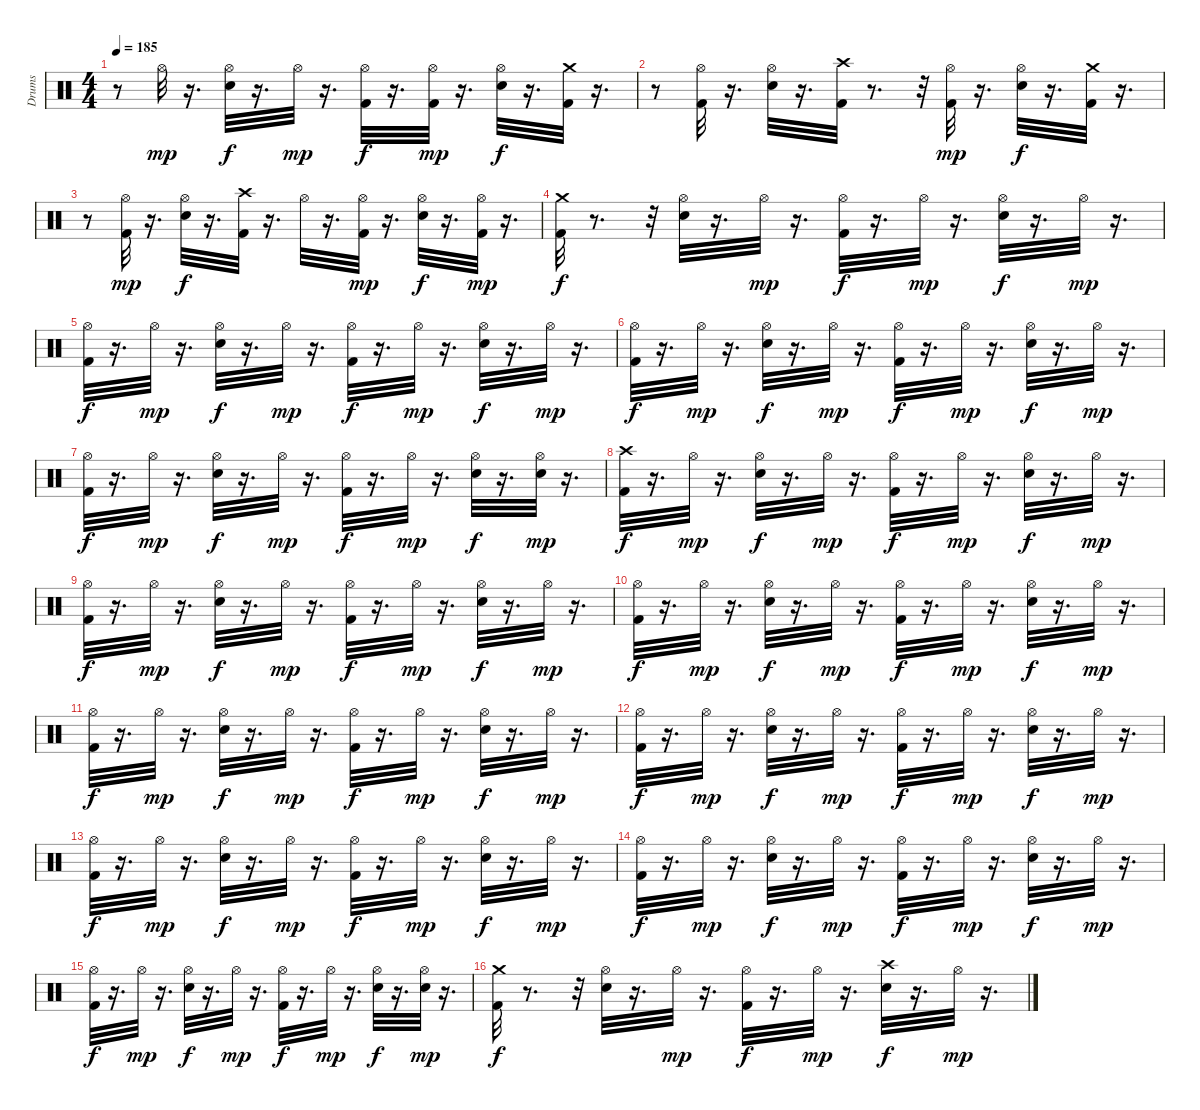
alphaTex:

\track ("Drums" "Drums") {instrument percussion}
\staff {score}
\articulation defaults
\ts (4 4)
\tempo 185
\clef neutral
\ks c
r.8{dy f} "Hi-Hat (open)".32{dy mp} r.16{d} ("Hi-Hat (open)" "Electric Snare (hit)").32{dy f} r.16{d} "Hi-Hat (open)".32{dy mp} r.16{d} ("Hi-Hat (open)" "Kick (hit) 2").32{dy f} r.16{d} ("Hi-Hat (open)" "Kick (hit) 2").32{dy mp} r.16{d} ("Hi-Hat (open)" "Electric Snare (hit)").32{dy f} r.16{d} ("Crash medium (hit)" "Kick (hit) 2").32 r.16{d} |
r.8 ("Hi-Hat (open)" "Kick (hit) 2").32 r.16{d} ("Hi-Hat (open)" "Electric Snare (hit)").32 r.16{d} ("Crash high (hit)" "Kick (hit) 2").32 r.8{d} r.32 ("Hi-Hat (open)" "Kick (hit) 2").32{dy mp} r.16{d} ("Hi-Hat (open)" "Electric Snare (hit)").32{dy f} r.16{d} ("Crash medium (hit)" "Kick (hit) 2").32 r.16{d} |
r.8 ("Hi-Hat (open)" "Kick (hit) 2").32{dy mp} r.16{d} ("Hi-Hat (open)" "Electric Snare (hit)").32{dy f} r.16{d} ("Crash high (hit)" "Kick (hit) 2").32 r.16{d} "Hi-Hat (open)".32 r.16{d} ("Hi-Hat (open)" "Kick (hit) 2").32{dy mp} r.16{d} ("Hi-Hat (open)" "Electric Snare (hit)").32{dy f} r.16{d} ("Hi-Hat (open)" "Kick (hit) 2").32{dy mp} r.16{d} |
("Crash medium (hit)" "Kick (hit) 2").32{dy f} r.8{d} r.32 ("Hi-Hat (open)" "Electric Snare (hit)").32 r.16{d} "Hi-Hat (open)".32{dy mp} r.16{d} ("Hi-Hat (open)" "Kick (hit) 2").32{dy f} r.16{d} "Hi-Hat (open)".32{dy mp} r.16{d} ("Hi-Hat (open)" "Electric Snare (hit)").32{dy f} r.16{d} "Hi-Hat (open)".32{dy mp} r.16{d} |
("Hi-Hat (open)" "Kick (hit) 2").32{dy f} r.16{d} "Hi-Hat (open)".32{dy mp} r.16{d} ("Hi-Hat (open)" "Electric Snare (hit)").32{dy f} r.16{d} "Hi-Hat (open)".32{dy mp} r.16{d} ("Hi-Hat (open)" "Kick (hit) 2").32{dy f} r.16{d} "Hi-Hat (open)".32{dy mp} r.16{d} ("Hi-Hat (open)" "Electric Snare (hit)").32{dy f} r.16{d} "Hi-Hat (open)".32{dy mp} r.16{d} |
("Hi-Hat (open)" "Kick (hit) 2").32{dy f} r.16{d} "Hi-Hat (open)".32{dy mp} r.16{d} ("Hi-Hat (open)" "Electric Snare (hit)").32{dy f} r.16{d} "Hi-Hat (open)".32{dy mp} r.16{d} ("Hi-Hat (open)" "Kick (hit) 2").32{dy f} r.16{d} "Hi-Hat (open)".32{dy mp} r.16{d} ("Hi-Hat (open)" "Electric Snare (hit)").32{dy f} r.16{d} "Hi-Hat (open)".32{dy mp} r.16{d} |
("Kick (hit) 2" "Hi-Hat (open)").32{dy f} r.16{d} "Hi-Hat (open)".32{dy mp} r.16{d} ("Electric Snare (hit)" "Hi-Hat (open)").32{dy f} r.16{d} "Hi-Hat (open)".32{dy mp} r.16{d} ("Kick (hit) 2" "Hi-Hat (open)").32{dy f} r.16{d} "Hi-Hat (open)".32{dy mp} r.16{d} ("Hi-Hat (open)" "Electric Snare (hit)").32{dy f} r.16{d} ("Electric Snare (hit)" "Hi-Hat (open)").32{dy mp} r.16{d} |
("Crash high (hit)" "Kick (hit) 2").32{dy f} r.16{d} "Hi-Hat (open)".32{dy mp} r.16{d} ("Hi-Hat (open)" "Electric Snare (hit)").32{dy f} r.16{d} "Hi-Hat (open)".32{dy mp} r.16{d} ("Hi-Hat (open)" "Kick (hit) 2").32{dy f} r.16{d} "Hi-Hat (open)".32{dy mp} r.16{d} ("Hi-Hat (open)" "Electric Snare (hit)").32{dy f} r.16{d} "Hi-Hat (open)".32{dy mp} r.16{d} |
("Hi-Hat (open)" "Kick (hit) 2").32{dy f} r.16{d} "Hi-Hat (open)".32{dy mp} r.16{d} ("Hi-Hat (open)" "Electric Snare (hit)").32{dy f} r.16{d} "Hi-Hat (open)".32{dy mp} r.16{d} ("Hi-Hat (open)" "Kick (hit) 2").32{dy f} r.16{d} "Hi-Hat (open)".32{dy mp} r.16{d} ("Hi-Hat (open)" "Electric Snare (hit)").32{dy f} r.16{d} "Hi-Hat (open)".32{dy mp} r.16{d} |
("Hi-Hat (open)" "Kick (hit) 2").32{dy f} r.16{d} "Hi-Hat (open)".32{dy mp} r.16{d} ("Hi-Hat (open)" "Electric Snare (hit)").32{dy f} r.16{d} "Hi-Hat (open)".32{dy mp} r.16{d} ("Hi-Hat (open)" "Kick (hit) 2").32{dy f} r.16{d} "Hi-Hat (open)".32{dy mp} r.16{d} ("Hi-Hat (open)" "Electric Snare (hit)").32{dy f} r.16{d} "Hi-Hat (open)".32{dy mp} r.16{d} |
("Hi-Hat (open)" "Kick (hit) 2").32{dy f} r.16{d} "Hi-Hat (open)".32{dy mp} r.16{d} ("Hi-Hat (open)" "Electric Snare (hit)").32{dy f} r.16{d} "Hi-Hat (open)".32{dy mp} r.16{d} ("Hi-Hat (open)" "Kick (hit) 2").32{dy f} r.16{d} "Hi-Hat (open)".32{dy mp} r.16{d} ("Hi-Hat (open)" "Electric Snare (hit)").32{dy f} r.16{d} "Hi-Hat (open)".32{dy mp} r.16{d} |
("Hi-Hat (open)" "Kick (hit) 2").32{dy f} r.16{d} "Hi-Hat (open)".32{dy mp} r.16{d} ("Hi-Hat (open)" "Electric Snare (hit)").32{dy f} r.16{d} "Hi-Hat (open)".32{dy mp} r.16{d} ("Hi-Hat (open)" "Kick (hit) 2").32{dy f} r.16{d} "Hi-Hat (open)".32{dy mp} r.16{d} ("Hi-Hat (open)" "Electric Snare (hit)").32{dy f} r.16{d} "Hi-Hat (open)".32{dy mp} r.16{d} |
("Hi-Hat (open)" "Kick (hit) 2").32{dy f} r.16{d} "Hi-Hat (open)".32{dy mp} r.16{d} ("Hi-Hat (open)" "Electric Snare (hit)").32{dy f} r.16{d} "Hi-Hat (open)".32{dy mp} r.16{d} ("Hi-Hat (open)" "Kick (hit) 2").32{dy f} r.16{d} "Hi-Hat (open)".32{dy mp} r.16{d} ("Hi-Hat (open)" "Electric Snare (hit)").32{dy f} r.16{d} "Hi-Hat (open)".32{dy mp} r.16{d} |
("Hi-Hat (open)" "Kick (hit) 2").32{dy f} r.16{d} "Hi-Hat (open)".32{dy mp} r.16{d} ("Hi-Hat (open)" "Electric Snare (hit)").32{dy f} r.16{d} "Hi-Hat (open)".32{dy mp} r.16{d} ("Hi-Hat (open)" "Kick (hit) 2").32{dy f} r.16{d} "Hi-Hat (open)".32{dy mp} r.16{d} ("Hi-Hat (open)" "Electric Snare (hit)").32{dy f} r.16{d} "Hi-Hat (open)".32{dy mp} r.16{d} |
("Hi-Hat (open)" "Kick (hit) 2").32{dy f} r.16{d} "Hi-Hat (open)".32{dy mp} r.16{d} ("Hi-Hat (open)" "Electric Snare (hit)").32{dy f} r.16{d} "Hi-Hat (open)".32{dy mp} r.16{d} ("Hi-Hat (open)" "Kick (hit) 2").32{dy f} r.16{d} "Hi-Hat (open)".32{dy mp} r.16{d} ("Hi-Hat (open)" "Electric Snare (hit)").32{dy f} r.16{d} ("Electric Snare (hit)" "Hi-Hat (open)").32{dy mp} r.16{d} |
("Crash medium (hit)" "Kick (hit) 2").32{dy f} r.8{d} r.32 ("Hi-Hat (open)" "Electric Snare (hit)").32 r.16{d} "Hi-Hat (open)".32{dy mp} r.16{d} ("Hi-Hat (open)" "Kick (hit) 2").32{dy f} r.16{d} "Hi-Hat (open)".32{dy mp} r.16{d} ("Crash high (hit)" "Electric Snare (hit)").32{dy f} r.16{d} "Hi-Hat (open)".32{dy mp} r.16{d}
